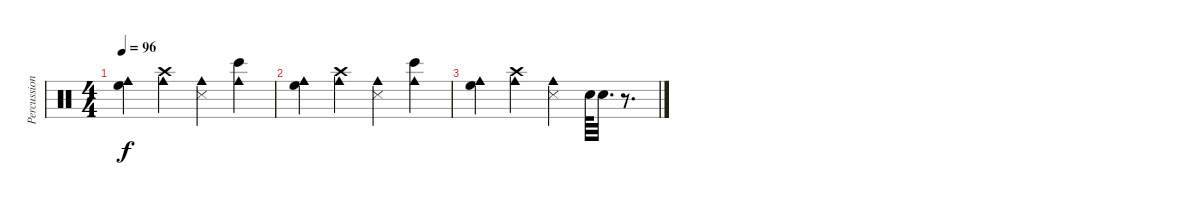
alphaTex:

\track ("Percussion (Mason)" "Percussion") {instrument percussion}
\staff {score}
\articulation defaults
\ts (4 4)
\tempo 96
\clef neutral
\ks c
("High Floor Tom (hit)" "Cowbell medium (hit)").4{dy f} ("Crash high (hit)" "Cowbell medium (hit)").4 ("Metronome (hit)" "Cowbell medium (hit)").4 ("Bongo High (hit)" "Cowbell medium (hit)").4 |
("High Floor Tom (hit)" "Cowbell medium (hit)").4 ("Crash high (hit)" "Cowbell medium (hit)").4 ("Metronome (hit)" "Cowbell medium (hit)").4 ("Bongo High (hit)" "Cowbell medium (hit)").4 |
("High Floor Tom (hit)" "Cowbell medium (hit)").4 ("Crash high (hit)" "Cowbell medium (hit)").4 ("Metronome (hit)" "Cowbell medium (hit)").4 "Electric Snare (hit)".64 "Electric Snare (hit)".32{d} r.8{d}
